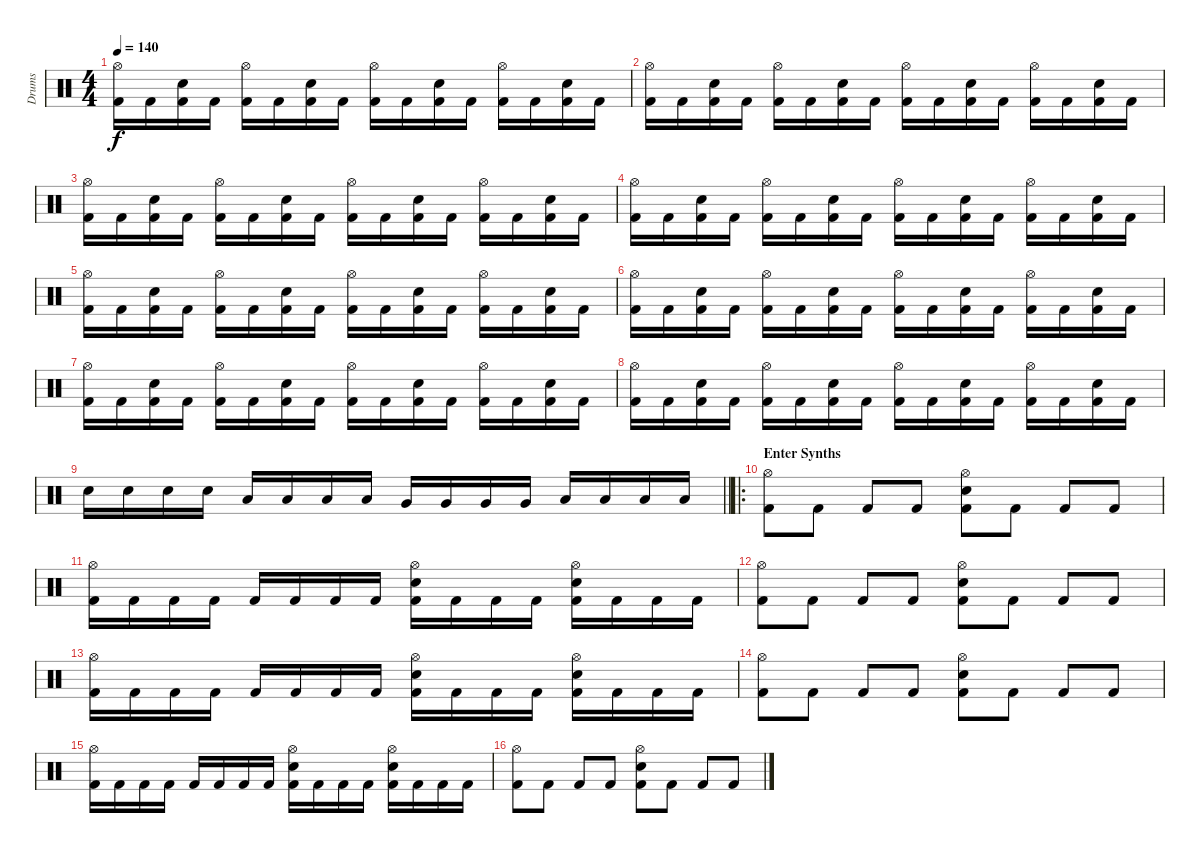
\track ("Drums" "Drums") {instrument percussion}
\staff {score}
\articulation defaults
\ts (4 4)
\tempo 140
\clef neutral
\ks c
("Hi-Hat (open)" "Kick (hit) 2").16{dy f} "Kick (hit) 2".16 ("Snare (hit) 2" "Kick (hit) 2").16 "Kick (hit) 2".16 ("Hi-Hat (open)" "Kick (hit) 2").16 "Kick (hit) 2".16 ("Snare (hit) 2" "Kick (hit) 2").16 "Kick (hit) 2".16 ("Hi-Hat (open)" "Kick (hit) 2").16 "Kick (hit) 2".16 ("Snare (hit) 2" "Kick (hit) 2").16 "Kick (hit) 2".16 ("Hi-Hat (open)" "Kick (hit) 2").16 "Kick (hit) 2".16 ("Snare (hit) 2" "Kick (hit) 2").16 "Kick (hit) 2".16 |
("Hi-Hat (open)" "Kick (hit) 2").16 "Kick (hit) 2".16 ("Snare (hit) 2" "Kick (hit) 2").16 "Kick (hit) 2".16 ("Hi-Hat (open)" "Kick (hit) 2").16 "Kick (hit) 2".16 ("Snare (hit) 2" "Kick (hit) 2").16 "Kick (hit) 2".16 ("Hi-Hat (open)" "Kick (hit) 2").16 "Kick (hit) 2".16 ("Snare (hit) 2" "Kick (hit) 2").16 "Kick (hit) 2".16 ("Hi-Hat (open)" "Kick (hit) 2").16 "Kick (hit) 2".16 ("Snare (hit) 2" "Kick (hit) 2").16 "Kick (hit) 2".16 |
("Hi-Hat (open)" "Kick (hit) 2").16 "Kick (hit) 2".16 ("Snare (hit) 2" "Kick (hit) 2").16 "Kick (hit) 2".16 ("Hi-Hat (open)" "Kick (hit) 2").16 "Kick (hit) 2".16 ("Snare (hit) 2" "Kick (hit) 2").16 "Kick (hit) 2".16 ("Hi-Hat (open)" "Kick (hit) 2").16 "Kick (hit) 2".16 ("Snare (hit) 2" "Kick (hit) 2").16 "Kick (hit) 2".16 ("Hi-Hat (open)" "Kick (hit) 2").16 "Kick (hit) 2".16 ("Snare (hit) 2" "Kick (hit) 2").16 "Kick (hit) 2".16 |
("Hi-Hat (open)" "Kick (hit) 2").16 "Kick (hit) 2".16 ("Snare (hit) 2" "Kick (hit) 2").16 "Kick (hit) 2".16 ("Hi-Hat (open)" "Kick (hit) 2").16 "Kick (hit) 2".16 ("Snare (hit) 2" "Kick (hit) 2").16 "Kick (hit) 2".16 ("Hi-Hat (open)" "Kick (hit) 2").16 "Kick (hit) 2".16 ("Snare (hit) 2" "Kick (hit) 2").16 "Kick (hit) 2".16 ("Hi-Hat (open)" "Kick (hit) 2").16 "Kick (hit) 2".16 ("Snare (hit) 2" "Kick (hit) 2").16 "Kick (hit) 2".16 |
("Hi-Hat (open)" "Kick (hit) 2").16 "Kick (hit) 2".16 ("Snare (hit) 2" "Kick (hit) 2").16 "Kick (hit) 2".16 ("Hi-Hat (open)" "Kick (hit) 2").16 "Kick (hit) 2".16 ("Snare (hit) 2" "Kick (hit) 2").16 "Kick (hit) 2".16 ("Hi-Hat (open)" "Kick (hit) 2").16 "Kick (hit) 2".16 ("Snare (hit) 2" "Kick (hit) 2").16 "Kick (hit) 2".16 ("Hi-Hat (open)" "Kick (hit) 2").16 "Kick (hit) 2".16 ("Snare (hit) 2" "Kick (hit) 2").16 "Kick (hit) 2".16 |
("Hi-Hat (open)" "Kick (hit) 2").16 "Kick (hit) 2".16 ("Snare (hit) 2" "Kick (hit) 2").16 "Kick (hit) 2".16 ("Hi-Hat (open)" "Kick (hit) 2").16 "Kick (hit) 2".16 ("Snare (hit) 2" "Kick (hit) 2").16 "Kick (hit) 2".16 ("Hi-Hat (open)" "Kick (hit) 2").16 "Kick (hit) 2".16 ("Snare (hit) 2" "Kick (hit) 2").16 "Kick (hit) 2".16 ("Hi-Hat (open)" "Kick (hit) 2").16 "Kick (hit) 2".16 ("Snare (hit) 2" "Kick (hit) 2").16 "Kick (hit) 2".16 |
("Hi-Hat (open)" "Kick (hit) 2").16 "Kick (hit) 2".16 ("Snare (hit) 2" "Kick (hit) 2").16 "Kick (hit) 2".16 ("Hi-Hat (open)" "Kick (hit) 2").16 "Kick (hit) 2".16 ("Snare (hit) 2" "Kick (hit) 2").16 "Kick (hit) 2".16 ("Hi-Hat (open)" "Kick (hit) 2").16 "Kick (hit) 2".16 ("Snare (hit) 2" "Kick (hit) 2").16 "Kick (hit) 2".16 ("Hi-Hat (open)" "Kick (hit) 2").16 "Kick (hit) 2".16 ("Snare (hit) 2" "Kick (hit) 2").16 "Kick (hit) 2".16 |
("Hi-Hat (open)" "Kick (hit) 2").16 "Kick (hit) 2".16 ("Snare (hit) 2" "Kick (hit) 2").16 "Kick (hit) 2".16 ("Hi-Hat (open)" "Kick (hit) 2").16 "Kick (hit) 2".16 ("Snare (hit) 2" "Kick (hit) 2").16 "Kick (hit) 2".16 ("Hi-Hat (open)" "Kick (hit) 2").16 "Kick (hit) 2".16 ("Snare (hit) 2" "Kick (hit) 2").16 "Kick (hit) 2".16 ("Hi-Hat (open)" "Kick (hit) 2").16 "Kick (hit) 2".16 ("Snare (hit) 2" "Kick (hit) 2").16 "Kick (hit) 2".16 |
\barLineRight lightlight "Snare (hit) 2".16 "Snare (hit) 2".16 "Snare (hit) 2".16 "Snare (hit) 2".16 "Low Tom (hit)".16 "Low Tom (hit)".16 "Low Tom (hit)".16 "Low Tom (hit)".16 "Very Low Tom (hit)".16 "Very Low Tom (hit)".16 "Very Low Tom (hit)".16 "Very Low Tom (hit)".16 "Low Floor Tom (hit)".16 "Low Floor Tom (hit)".16 "Low Floor Tom (hit)".16 "Low Floor Tom (hit)".16
|
\ro
\section ("" "Enter Synths")
("Hi-Hat (open)" "Kick (hit) 2").8 "Kick (hit) 2".8 "Kick (hit) 2".8 "Kick (hit) 2".8 ("Hi-Hat (open)" "Snare (hit) 2" "Kick (hit) 2").8 "Kick (hit) 2".8 "Kick (hit) 2".8 "Kick (hit) 2".8 |
("Hi-Hat (open)" "Kick (hit) 2").16 "Kick (hit) 2".16 "Kick (hit) 2".16 "Kick (hit) 2".16 "Kick (hit) 2".16 "Kick (hit) 2".16 "Kick (hit) 2".16 "Kick (hit) 2".16 ("Hi-Hat (open)" "Snare (hit) 2" "Kick (hit) 2").16 "Kick (hit) 2".16 "Kick (hit) 2".16 "Kick (hit) 2".16 ("Hi-Hat (open)" "Snare (hit) 2" "Kick (hit) 2").16 "Kick (hit) 2".16 "Kick (hit) 2".16 "Kick (hit) 2".16 |
("Hi-Hat (open)" "Kick (hit) 2").8 "Kick (hit) 2".8 "Kick (hit) 2".8 "Kick (hit) 2".8 ("Hi-Hat (open)" "Snare (hit) 2" "Kick (hit) 2").8 "Kick (hit) 2".8 "Kick (hit) 2".8 "Kick (hit) 2".8 |
("Hi-Hat (open)" "Kick (hit) 2").16 "Kick (hit) 2".16 "Kick (hit) 2".16 "Kick (hit) 2".16 "Kick (hit) 2".16 "Kick (hit) 2".16 "Kick (hit) 2".16 "Kick (hit) 2".16 ("Hi-Hat (open)" "Snare (hit) 2" "Kick (hit) 2").16 "Kick (hit) 2".16 "Kick (hit) 2".16 "Kick (hit) 2".16 ("Hi-Hat (open)" "Snare (hit) 2" "Kick (hit) 2").16 "Kick (hit) 2".16 "Kick (hit) 2".16 "Kick (hit) 2".16 |
("Hi-Hat (open)" "Kick (hit) 2").8 "Kick (hit) 2".8 "Kick (hit) 2".8 "Kick (hit) 2".8 ("Hi-Hat (open)" "Snare (hit) 2" "Kick (hit) 2").8 "Kick (hit) 2".8 "Kick (hit) 2".8 "Kick (hit) 2".8 |
("Hi-Hat (open)" "Kick (hit) 2").16 "Kick (hit) 2".16 "Kick (hit) 2".16 "Kick (hit) 2".16 "Kick (hit) 2".16 "Kick (hit) 2".16 "Kick (hit) 2".16 "Kick (hit) 2".16 ("Hi-Hat (open)" "Snare (hit) 2" "Kick (hit) 2").16 "Kick (hit) 2".16 "Kick (hit) 2".16 "Kick (hit) 2".16 ("Hi-Hat (open)" "Snare (hit) 2" "Kick (hit) 2").16 "Kick (hit) 2".16 "Kick (hit) 2".16 "Kick (hit) 2".16 |
("Hi-Hat (open)" "Kick (hit) 2").8 "Kick (hit) 2".8 "Kick (hit) 2".8 "Kick (hit) 2".8 ("Hi-Hat (open)" "Snare (hit) 2" "Kick (hit) 2").8 "Kick (hit) 2".8 "Kick (hit) 2".8 "Kick (hit) 2".8
